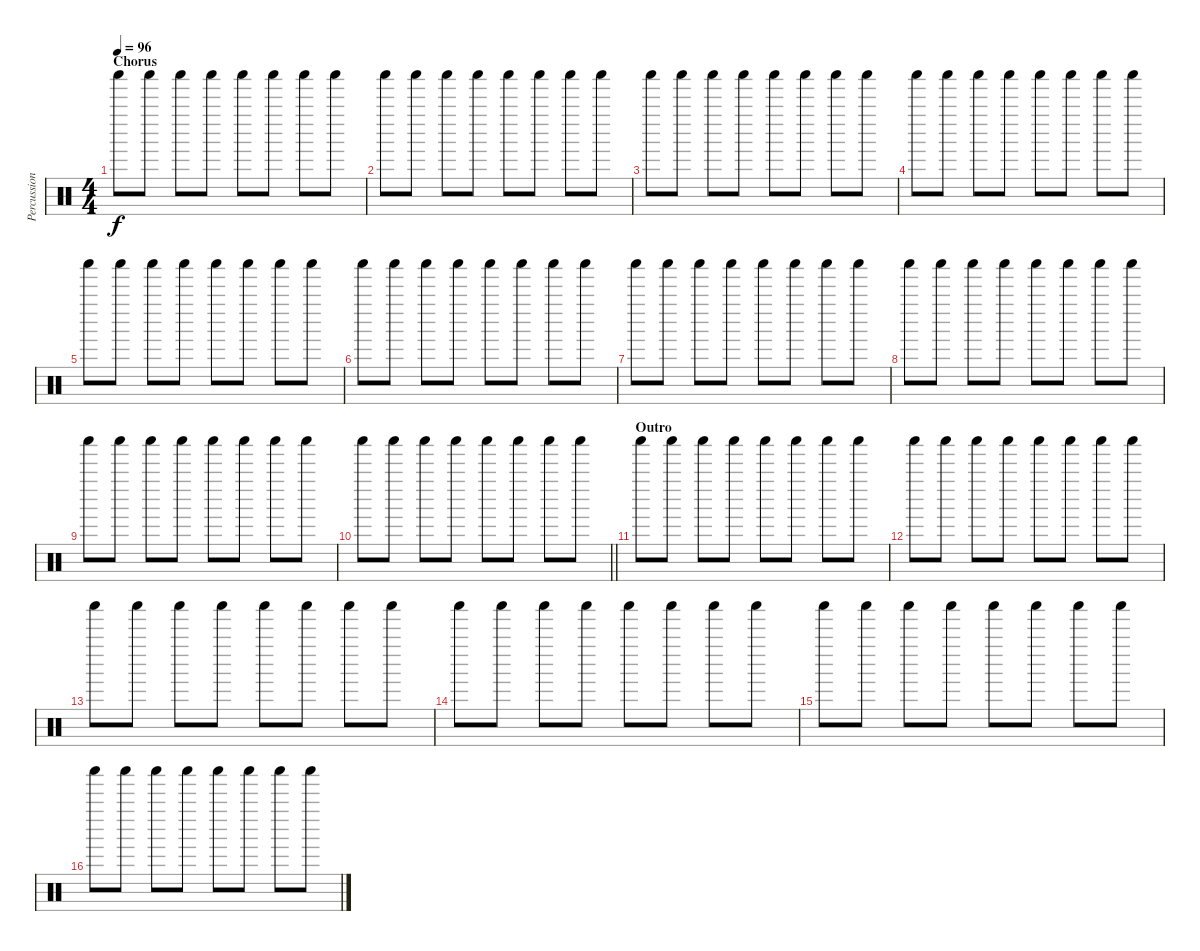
\track ("Percussion" "Percussion") {instrument percussion}
\staff {score}
\articulation defaults
\ts (4 4)
\section ("" "Chorus")
\tempo 96
\clef neutral
\ks c "Shaker (hit)".8{dy f} "Shaker (hit)".8 "Shaker (hit)".8 "Shaker (hit)".8 "Shaker (hit)".8 "Shaker (hit)".8 "Shaker (hit)".8 "Shaker (hit)".8
|
"Shaker (hit)".8 "Shaker (hit)".8 "Shaker (hit)".8 "Shaker (hit)".8 "Shaker (hit)".8 "Shaker (hit)".8 "Shaker (hit)".8 "Shaker (hit)".8 |
"Shaker (hit)".8 "Shaker (hit)".8 "Shaker (hit)".8 "Shaker (hit)".8 "Shaker (hit)".8 "Shaker (hit)".8 "Shaker (hit)".8 "Shaker (hit)".8 |
"Shaker (hit)".8 "Shaker (hit)".8 "Shaker (hit)".8 "Shaker (hit)".8 "Shaker (hit)".8 "Shaker (hit)".8 "Shaker (hit)".8 "Shaker (hit)".8 |
"Shaker (hit)".8 "Shaker (hit)".8 "Shaker (hit)".8 "Shaker (hit)".8 "Shaker (hit)".8 "Shaker (hit)".8 "Shaker (hit)".8 "Shaker (hit)".8 |
"Shaker (hit)".8 "Shaker (hit)".8 "Shaker (hit)".8 "Shaker (hit)".8 "Shaker (hit)".8 "Shaker (hit)".8 "Shaker (hit)".8 "Shaker (hit)".8 |
"Shaker (hit)".8 "Shaker (hit)".8 "Shaker (hit)".8 "Shaker (hit)".8 "Shaker (hit)".8 "Shaker (hit)".8 "Shaker (hit)".8 "Shaker (hit)".8 |
"Shaker (hit)".8 "Shaker (hit)".8 "Shaker (hit)".8 "Shaker (hit)".8 "Shaker (hit)".8 "Shaker (hit)".8 "Shaker (hit)".8 "Shaker (hit)".8 |
"Shaker (hit)".8 "Shaker (hit)".8 "Shaker (hit)".8 "Shaker (hit)".8 "Shaker (hit)".8 "Shaker (hit)".8 "Shaker (hit)".8 "Shaker (hit)".8 |
\barLineRight lightlight "Shaker (hit)".8 "Shaker (hit)".8 "Shaker (hit)".8 "Shaker (hit)".8 "Shaker (hit)".8 "Shaker (hit)".8 "Shaker (hit)".8 "Shaker (hit)".8
|
\section ("" "Outro")
"Shaker (hit)".8 "Shaker (hit)".8 "Shaker (hit)".8 "Shaker (hit)".8 "Shaker (hit)".8 "Shaker (hit)".8 "Shaker (hit)".8 "Shaker (hit)".8 |
"Shaker (hit)".8 "Shaker (hit)".8 "Shaker (hit)".8 "Shaker (hit)".8 "Shaker (hit)".8 "Shaker (hit)".8 "Shaker (hit)".8 "Shaker (hit)".8 |
"Shaker (hit)".8 "Shaker (hit)".8 "Shaker (hit)".8 "Shaker (hit)".8 "Shaker (hit)".8 "Shaker (hit)".8 "Shaker (hit)".8 "Shaker (hit)".8 |
"Shaker (hit)".8 "Shaker (hit)".8 "Shaker (hit)".8 "Shaker (hit)".8 "Shaker (hit)".8 "Shaker (hit)".8 "Shaker (hit)".8 "Shaker (hit)".8 |
"Shaker (hit)".8 "Shaker (hit)".8 "Shaker (hit)".8 "Shaker (hit)".8 "Shaker (hit)".8 "Shaker (hit)".8 "Shaker (hit)".8 "Shaker (hit)".8 |
"Shaker (hit)".8 "Shaker (hit)".8 "Shaker (hit)".8 "Shaker (hit)".8 "Shaker (hit)".8 "Shaker (hit)".8 "Shaker (hit)".8 "Shaker (hit)".8
